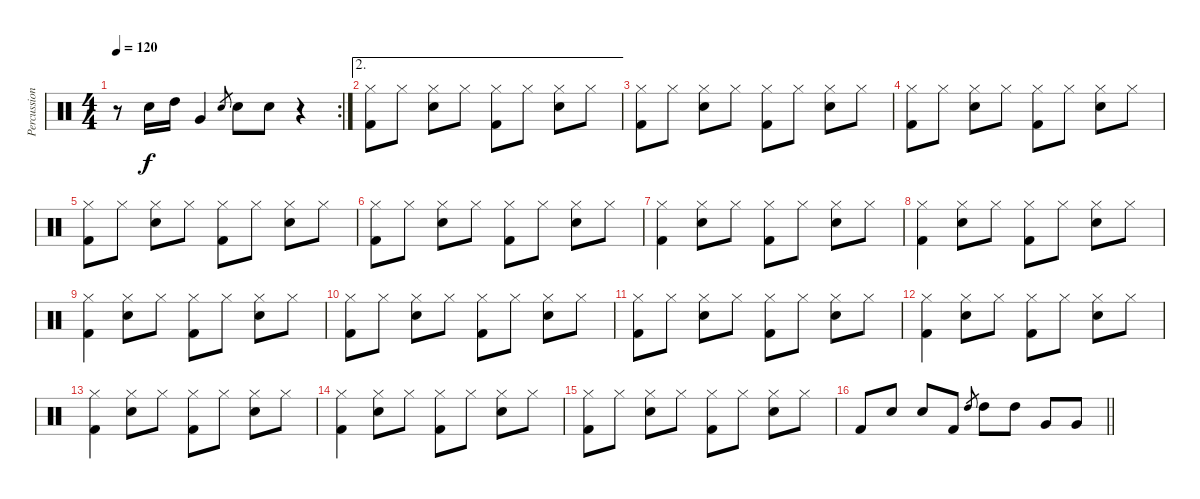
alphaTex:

\track ("Percussion" "Percussion") {instrument percussion}
\staff {score}
\articulation defaults
\rc 2
\ts (4 4)
\tempo 120
\clef neutral
\ks c
r.8{dy f} "Snare (hit) 2".16 "High Tom (hit)".16 "Very Low Tom (hit)".4 "Snare (hit) 2".8{gr} "Snare (hit) 2".8 "Snare (hit) 2".8 r.4 |
\ae 2
("Hi-Hat (closed)" "Kick (hit) 2").8 "Hi-Hat (closed)".8 ("Hi-Hat (closed)" "Snare (hit) 2").8 "Hi-Hat (closed)".8 ("Hi-Hat (closed)" "Kick (hit) 2").8 "Hi-Hat (closed)".8 ("Hi-Hat (closed)" "Snare (hit) 2").8 "Hi-Hat (closed)".8 |
("Hi-Hat (closed)" "Kick (hit) 2").8 "Hi-Hat (closed)".8 ("Hi-Hat (closed)" "Snare (hit) 2").8 "Hi-Hat (closed)".8 ("Hi-Hat (closed)" "Kick (hit) 2").8 "Hi-Hat (closed)".8 ("Hi-Hat (closed)" "Snare (hit) 2").8 "Hi-Hat (closed)".8 |
("Hi-Hat (closed)" "Kick (hit) 2").8 "Hi-Hat (closed)".8 ("Hi-Hat (closed)" "Snare (hit) 2").8 "Hi-Hat (closed)".8 ("Hi-Hat (closed)" "Kick (hit) 2").8 "Hi-Hat (closed)".8 ("Hi-Hat (closed)" "Snare (hit) 2").8 "Hi-Hat (closed)".8 |
("Hi-Hat (closed)" "Kick (hit) 2").8 "Hi-Hat (closed)".8 ("Hi-Hat (closed)" "Snare (hit) 2").8 "Hi-Hat (closed)".8 ("Hi-Hat (closed)" "Kick (hit) 2").8 "Hi-Hat (closed)".8 ("Hi-Hat (closed)" "Snare (hit) 2").8 "Hi-Hat (closed)".8 |
("Hi-Hat (closed)" "Kick (hit) 2").8 "Hi-Hat (closed)".8 ("Hi-Hat (closed)" "Snare (hit) 2").8 "Hi-Hat (closed)".8 ("Hi-Hat (closed)" "Kick (hit) 2").8 "Hi-Hat (closed)".8 ("Hi-Hat (closed)" "Snare (hit) 2").8 "Hi-Hat (closed)".8 |
("Hi-Hat (closed)" "Kick (hit) 2").4 ("Hi-Hat (closed)" "Snare (hit) 2").8 "Hi-Hat (closed)".8 ("Hi-Hat (closed)" "Kick (hit) 2").8 "Hi-Hat (closed)".8 ("Hi-Hat (closed)" "Snare (hit) 2").8 "Hi-Hat (closed)".8 |
("Hi-Hat (closed)" "Kick (hit) 2").4 ("Hi-Hat (closed)" "Snare (hit) 2").8 "Hi-Hat (closed)".8 ("Hi-Hat (closed)" "Kick (hit) 2").8 "Hi-Hat (closed)".8 ("Hi-Hat (closed)" "Snare (hit) 2").8 "Hi-Hat (closed)".8 |
("Hi-Hat (closed)" "Kick (hit) 2").4 ("Hi-Hat (closed)" "Snare (hit) 2").8 "Hi-Hat (closed)".8 ("Hi-Hat (closed)" "Kick (hit) 2").8 "Hi-Hat (closed)".8 ("Hi-Hat (closed)" "Snare (hit) 2").8 "Hi-Hat (closed)".8 |
("Hi-Hat (closed)" "Kick (hit) 2").8 "Hi-Hat (closed)".8 ("Hi-Hat (closed)" "Snare (hit) 2").8 "Hi-Hat (closed)".8 ("Hi-Hat (closed)" "Kick (hit) 2").8 "Hi-Hat (closed)".8 ("Hi-Hat (closed)" "Snare (hit) 2").8 "Hi-Hat (closed)".8 |
("Hi-Hat (closed)" "Kick (hit) 2").8 "Hi-Hat (closed)".8 ("Hi-Hat (closed)" "Snare (hit) 2").8 "Hi-Hat (closed)".8 ("Hi-Hat (closed)" "Kick (hit) 2").8 "Hi-Hat (closed)".8 ("Hi-Hat (closed)" "Snare (hit) 2").8 "Hi-Hat (closed)".8 |
("Hi-Hat (closed)" "Kick (hit) 2").4 ("Hi-Hat (closed)" "Snare (hit) 2").8 "Hi-Hat (closed)".8 ("Hi-Hat (closed)" "Kick (hit) 2").8 "Hi-Hat (closed)".8 ("Hi-Hat (closed)" "Snare (hit) 2").8 "Hi-Hat (closed)".8 |
("Hi-Hat (closed)" "Kick (hit) 2").4 ("Hi-Hat (closed)" "Snare (hit) 2").8 "Hi-Hat (closed)".8 ("Hi-Hat (closed)" "Kick (hit) 2").8 "Hi-Hat (closed)".8 ("Hi-Hat (closed)" "Snare (hit) 2").8 "Hi-Hat (closed)".8 |
("Hi-Hat (closed)" "Kick (hit) 2").4 ("Hi-Hat (closed)" "Snare (hit) 2").8 "Hi-Hat (closed)".8 ("Hi-Hat (closed)" "Kick (hit) 2").8 "Hi-Hat (closed)".8 ("Hi-Hat (closed)" "Snare (hit) 2").8 "Hi-Hat (closed)".8 |
("Hi-Hat (closed)" "Kick (hit) 2").8 "Hi-Hat (closed)".8 ("Hi-Hat (closed)" "Snare (hit) 2").8 "Hi-Hat (closed)".8 ("Hi-Hat (closed)" "Kick (hit) 2").8 "Hi-Hat (closed)".8 ("Hi-Hat (closed)" "Snare (hit) 2").8 "Hi-Hat (closed)".8 |
\barLineRight lightlight "Kick (hit) 2".8 "Snare (hit) 2".8 "Snare (hit) 2".8 "Kick (hit) 2".8 "High Tom (hit)".8{gr} "High Tom (hit)".8 "High Tom (hit)".8 "Very Low Tom (hit)".8 "Very Low Tom (hit)".8
